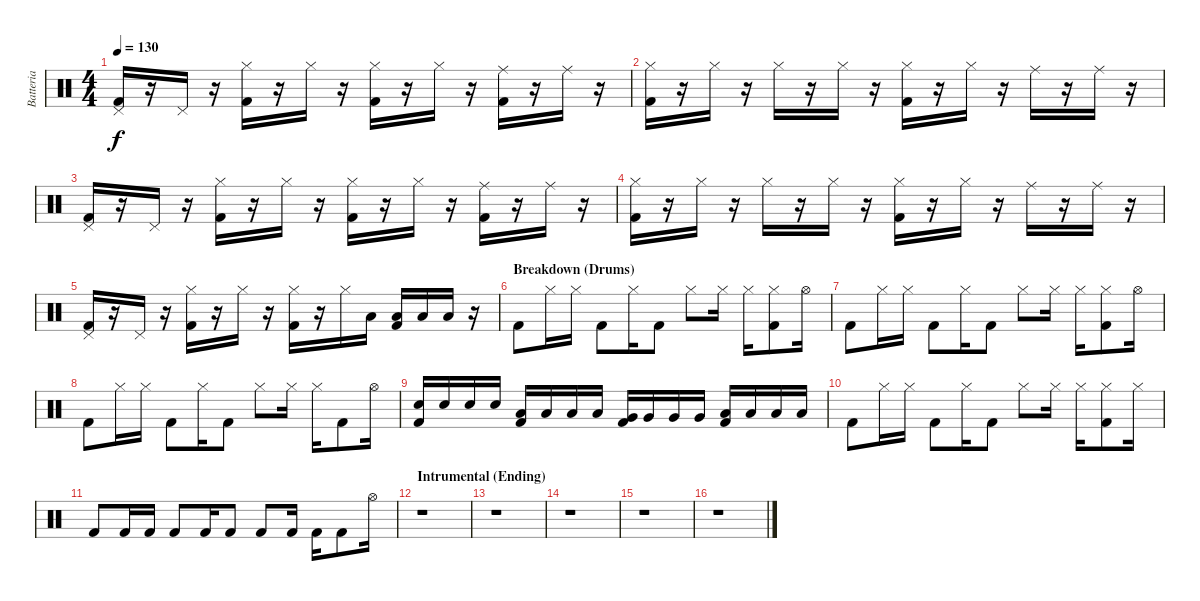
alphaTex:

\track ("Batteria" "Batteria") {instrument percussion}
\staff {score}
\articulation defaults
\ts (4 4)
\tempo 130
\clef neutral
\ks c
("Pedal Hi-Hat (hit)" "Kick (hit) 2").16{dy f} r.16 "Pedal Hi-Hat (hit)".16 r.16 ("Hi-Hat (closed)" "Kick (hit) 2").16 r.16 "Hi-Hat (closed)".16 r.16 ("Hi-Hat (closed)" "Kick (hit) 2").16 r.16 "Hi-Hat (closed)".16 r.16 ("Ride (middle)" "Kick (hit) 2").16 r.16 "Ride (middle)".16 r.16 |
("Hi-Hat (closed)" "Kick (hit) 2").16 r.16 "Hi-Hat (closed)".16 r.16 "Hi-Hat (closed)".16 r.16 "Hi-Hat (closed)".16 r.16 ("Hi-Hat (closed)" "Kick (hit) 2").16 r.16 "Hi-Hat (closed)".16 r.16 "Ride (middle)".16 r.16 "Ride (middle)".16 r.16 |
("Pedal Hi-Hat (hit)" "Kick (hit) 2").16 r.16 "Pedal Hi-Hat (hit)".16 r.16 ("Hi-Hat (closed)" "Kick (hit) 2").16 r.16 "Hi-Hat (closed)".16 r.16 ("Hi-Hat (closed)" "Kick (hit) 2").16 r.16 "Hi-Hat (closed)".16 r.16 ("Ride (middle)" "Kick (hit) 2").16 r.16 "Ride (middle)".16 r.16 |
("Hi-Hat (closed)" "Kick (hit) 2").16 r.16 "Hi-Hat (closed)".16 r.16 "Hi-Hat (closed)".16 r.16 "Hi-Hat (closed)".16 r.16 ("Hi-Hat (closed)" "Kick (hit) 2").16 r.16 "Hi-Hat (closed)".16 r.16 "Ride (middle)".16 r.16 "Ride (middle)".16 r.16 |
("Pedal Hi-Hat (hit)" "Kick (hit) 2").16 r.16 "Pedal Hi-Hat (hit)".16 r.16 ("Hi-Hat (closed)" "Kick (hit) 2").16 r.16 "Hi-Hat (closed)".16 r.16 ("Hi-Hat (closed)" "Kick (hit) 2").16 r.16 "Hi-Hat (closed)".16 "Low Tom (hit)".16 ("Low Tom (hit)" "Kick (hit) 2").16 "Low Tom (hit)".16 "Low Tom (hit)".16 r.16 |
\section ("" "Breakdown (Drums)")
"Kick (hit) 2".8 "Hi-Hat (closed)".16 "Hi-Hat (closed)".16 "Kick (hit) 2".8 "Hi-Hat (closed)".16 "Kick (hit) 2".8 "Hi-Hat (closed)".8 "Hi-Hat (closed)".16 "Hi-Hat (closed)".16 ("Hi-Hat (closed)" "Kick (hit) 2").8 "Hi-Hat (open)".16 |
"Kick (hit) 2".8 "Hi-Hat (closed)".16 "Hi-Hat (closed)".16 "Kick (hit) 2".8 "Hi-Hat (closed)".16 "Kick (hit) 2".8 "Hi-Hat (closed)".8 "Hi-Hat (closed)".16 "Hi-Hat (closed)".16 ("Hi-Hat (closed)" "Kick (hit) 2").8 "Hi-Hat (open)".16 |
"Kick (hit) 2".8 "Hi-Hat (closed)".16 "Hi-Hat (closed)".16 "Kick (hit) 2".8 "Hi-Hat (closed)".16 "Kick (hit) 2".8 "Hi-Hat (closed)".8 "Hi-Hat (closed)".16 "Hi-Hat (closed)".16 "Kick (hit) 2".8 "Hi-Hat (open)".16 |
("Snare (hit) 2" "Kick (hit) 2").16 "Snare (hit) 2".16 "Snare (hit) 2".16 "Snare (hit) 2".16 ("Low Floor Tom (hit)" "Kick (hit) 2").16 "Low Floor Tom (hit)".16 "Low Floor Tom (hit)".16 "Low Floor Tom (hit)".16 ("Very Low Tom (hit)" "Kick (hit) 2").16 "Very Low Tom (hit)".16 "Very Low Tom (hit)".16 "Very Low Tom (hit)".16 ("Low Tom (hit)" "Kick (hit) 2").16 "Low Tom (hit)".16 "Low Tom (hit)".16 "Low Tom (hit)".16 |
"Kick (hit) 2".8 "Hi-Hat (closed)".16 "Hi-Hat (closed)".16 "Kick (hit) 2".8 "Hi-Hat (closed)".16 "Kick (hit) 2".8 "Hi-Hat (closed)".8 "Hi-Hat (closed)".16 "Hi-Hat (closed)".16 ("Hi-Hat (closed)" "Kick (hit) 2").8 "Hi-Hat (closed)".16 |
"Kick (hit) 2".8 "Kick (hit) 2".16 "Kick (hit) 2".16 "Kick (hit) 2".8 "Kick (hit) 2".16 "Kick (hit) 2".8 "Kick (hit) 2".8 "Kick (hit) 2".16 "Kick (hit) 2".16 "Kick (hit) 2".8 "Hi-Hat (open)".16 |
\section ("" "Intrumental (Ending)")
r.1 |
r.1 |
r.1 |
r.1 |
r.1
